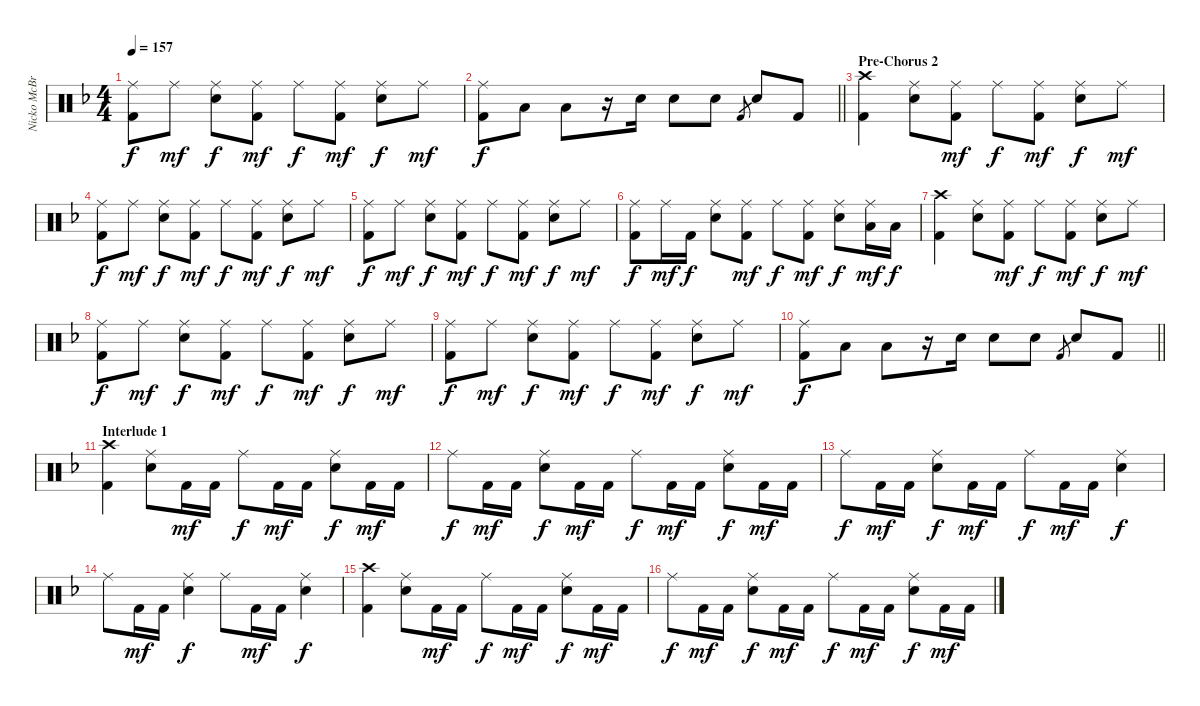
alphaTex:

\track ("Nicko McBrain" "Nicko McBr") {instrument percussion}
\staff {score}
\articulation defaults
\ts (4 4)
\tempo 157
\clef neutral
\ks f
("Ride (middle)" "Kick (hit) 2").8{dy f} "Ride (middle)".8{dy mf} ("Ride (middle)" "Electric Snare (hit)").8{dy f} ("Ride (middle)" "Kick (hit) 2").8{dy mf} "Ride (middle)".8{dy f} ("Ride (middle)" "Kick (hit) 2").8{dy mf} ("Ride (middle)" "Electric Snare (hit)").8{dy f} "Ride (middle)".8{dy mf} |
\barLineRight lightlight
("Ride (middle)" "Kick (hit) 2").8{dy f} "Low Tom (hit)".8 "Low Tom (hit)".8 r.16 "Electric Snare (hit)".16 "Electric Snare (hit)".8 "Electric Snare (hit)".8 "Kick (hit) 2".8{gr} "Electric Snare (hit)".8 "Kick (hit) 2".8 |
\section ("" "Pre-Chorus 2")
("Crash high (hit)" "Kick (hit) 2").4 ("Ride (middle)" "Electric Snare (hit)").8 ("Ride (middle)" "Kick (hit) 2").8{dy mf} "Ride (middle)".8{dy f} ("Ride (middle)" "Kick (hit) 2").8{dy mf} ("Ride (middle)" "Electric Snare (hit)").8{dy f} "Ride (middle)".8{dy mf} |
("Ride (middle)" "Kick (hit) 2").8{dy f} "Ride (middle)".8{dy mf} ("Ride (middle)" "Electric Snare (hit)").8{dy f} ("Ride (middle)" "Kick (hit) 2").8{dy mf} "Ride (middle)".8{dy f} ("Ride (middle)" "Kick (hit) 2").8{dy mf} ("Ride (middle)" "Electric Snare (hit)").8{dy f} "Ride (middle)".8{dy mf} |
("Ride (middle)" "Kick (hit) 2").8{dy f} "Ride (middle)".8{dy mf} ("Ride (middle)" "Electric Snare (hit)").8{dy f} ("Ride (middle)" "Kick (hit) 2").8{dy mf} "Ride (middle)".8{dy f} ("Ride (middle)" "Kick (hit) 2").8{dy mf} ("Ride (middle)" "Electric Snare (hit)").8{dy f} "Ride (middle)".8{dy mf} |
("Ride (middle)" "Kick (hit) 2").8{dy f} "Ride (middle)".16{dy mf} "Kick (hit) 2".16{dy f} ("Ride (middle)" "Electric Snare (hit)").8 ("Ride (middle)" "Kick (hit) 2").8{dy mf} "Ride (middle)".8{dy f} ("Ride (middle)" "Kick (hit) 2").8{dy mf} ("Ride (middle)" "Electric Snare (hit)").8{dy f} ("Ride (middle)" "Low Tom (hit)").16{dy mf} "Low Tom (hit)".16{dy f} |
("Crash high (hit)" "Kick (hit) 2").4 ("Ride (middle)" "Electric Snare (hit)").8 ("Ride (middle)" "Kick (hit) 2").8{dy mf} "Ride (middle)".8{dy f} ("Ride (middle)" "Kick (hit) 2").8{dy mf} ("Ride (middle)" "Electric Snare (hit)").8{dy f} "Ride (middle)".8{dy mf} |
("Ride (middle)" "Kick (hit) 2").8{dy f} "Ride (middle)".8{dy mf} ("Ride (middle)" "Electric Snare (hit)").8{dy f} ("Ride (middle)" "Kick (hit) 2").8{dy mf} "Ride (middle)".8{dy f} ("Ride (middle)" "Kick (hit) 2").8{dy mf} ("Ride (middle)" "Electric Snare (hit)").8{dy f} "Ride (middle)".8{dy mf} |
("Ride (middle)" "Kick (hit) 2").8{dy f} "Ride (middle)".8{dy mf} ("Ride (middle)" "Electric Snare (hit)").8{dy f} ("Ride (middle)" "Kick (hit) 2").8{dy mf} "Ride (middle)".8{dy f} ("Ride (middle)" "Kick (hit) 2").8{dy mf} ("Ride (middle)" "Electric Snare (hit)").8{dy f} "Ride (middle)".8{dy mf} |
\barLineRight lightlight
("Ride (middle)" "Kick (hit) 2").8{dy f} "Low Tom (hit)".8 "Low Tom (hit)".8 r.16 "Electric Snare (hit)".16 "Electric Snare (hit)".8 "Electric Snare (hit)".8 "Kick (hit) 2".8{gr} "Electric Snare (hit)".8 "Kick (hit) 2".8 |
\section ("" "Interlude 1")
("Crash high (hit)" "Kick (hit) 2").4 ("Ride (middle)" "Electric Snare (hit)").8 "Kick (hit) 2".16{dy mf} "Kick (hit) 2".16 "Ride (middle)".8{dy f} "Kick (hit) 2".16{dy mf} "Kick (hit) 2".16 ("Ride (middle)" "Electric Snare (hit)").8{dy f} "Kick (hit) 2".16{dy mf} "Kick (hit) 2".16 |
"Ride (middle)".8{dy f} "Kick (hit) 2".16{dy mf} "Kick (hit) 2".16 ("Ride (middle)" "Electric Snare (hit)").8{dy f} "Kick (hit) 2".16{dy mf} "Kick (hit) 2".16 "Ride (middle)".8{dy f} "Kick (hit) 2".16{dy mf} "Kick (hit) 2".16 ("Ride (middle)" "Electric Snare (hit)").8{dy f} "Kick (hit) 2".16{dy mf} "Kick (hit) 2".16 |
"Ride (middle)".8{dy f} "Kick (hit) 2".16{dy mf} "Kick (hit) 2".16 ("Ride (middle)" "Electric Snare (hit)").8{dy f} "Kick (hit) 2".16{dy mf} "Kick (hit) 2".16 "Ride (middle)".8{dy f} "Kick (hit) 2".16{dy mf} "Kick (hit) 2".16 ("Ride (middle)" "Electric Snare (hit)").4{dy f} |
"Ride (middle)".8 "Kick (hit) 2".16{dy mf} "Kick (hit) 2".16 ("Ride (middle)" "Electric Snare (hit)").4{dy f} "Ride (middle)".8 "Kick (hit) 2".16{dy mf} "Kick (hit) 2".16 ("Ride (middle)" "Electric Snare (hit)").4{dy f} |
("Crash high (hit)" "Kick (hit) 2").4 ("Ride (middle)" "Electric Snare (hit)").8 "Kick (hit) 2".16{dy mf} "Kick (hit) 2".16 "Ride (middle)".8{dy f} "Kick (hit) 2".16{dy mf} "Kick (hit) 2".16 ("Ride (middle)" "Electric Snare (hit)").8{dy f} "Kick (hit) 2".16{dy mf} "Kick (hit) 2".16 |
"Ride (middle)".8{dy f} "Kick (hit) 2".16{dy mf} "Kick (hit) 2".16 ("Ride (middle)" "Electric Snare (hit)").8{dy f} "Kick (hit) 2".16{dy mf} "Kick (hit) 2".16 "Ride (middle)".8{dy f} "Kick (hit) 2".16{dy mf} "Kick (hit) 2".16 ("Ride (middle)" "Electric Snare (hit)").8{dy f} "Kick (hit) 2".16{dy mf} "Kick (hit) 2".16
